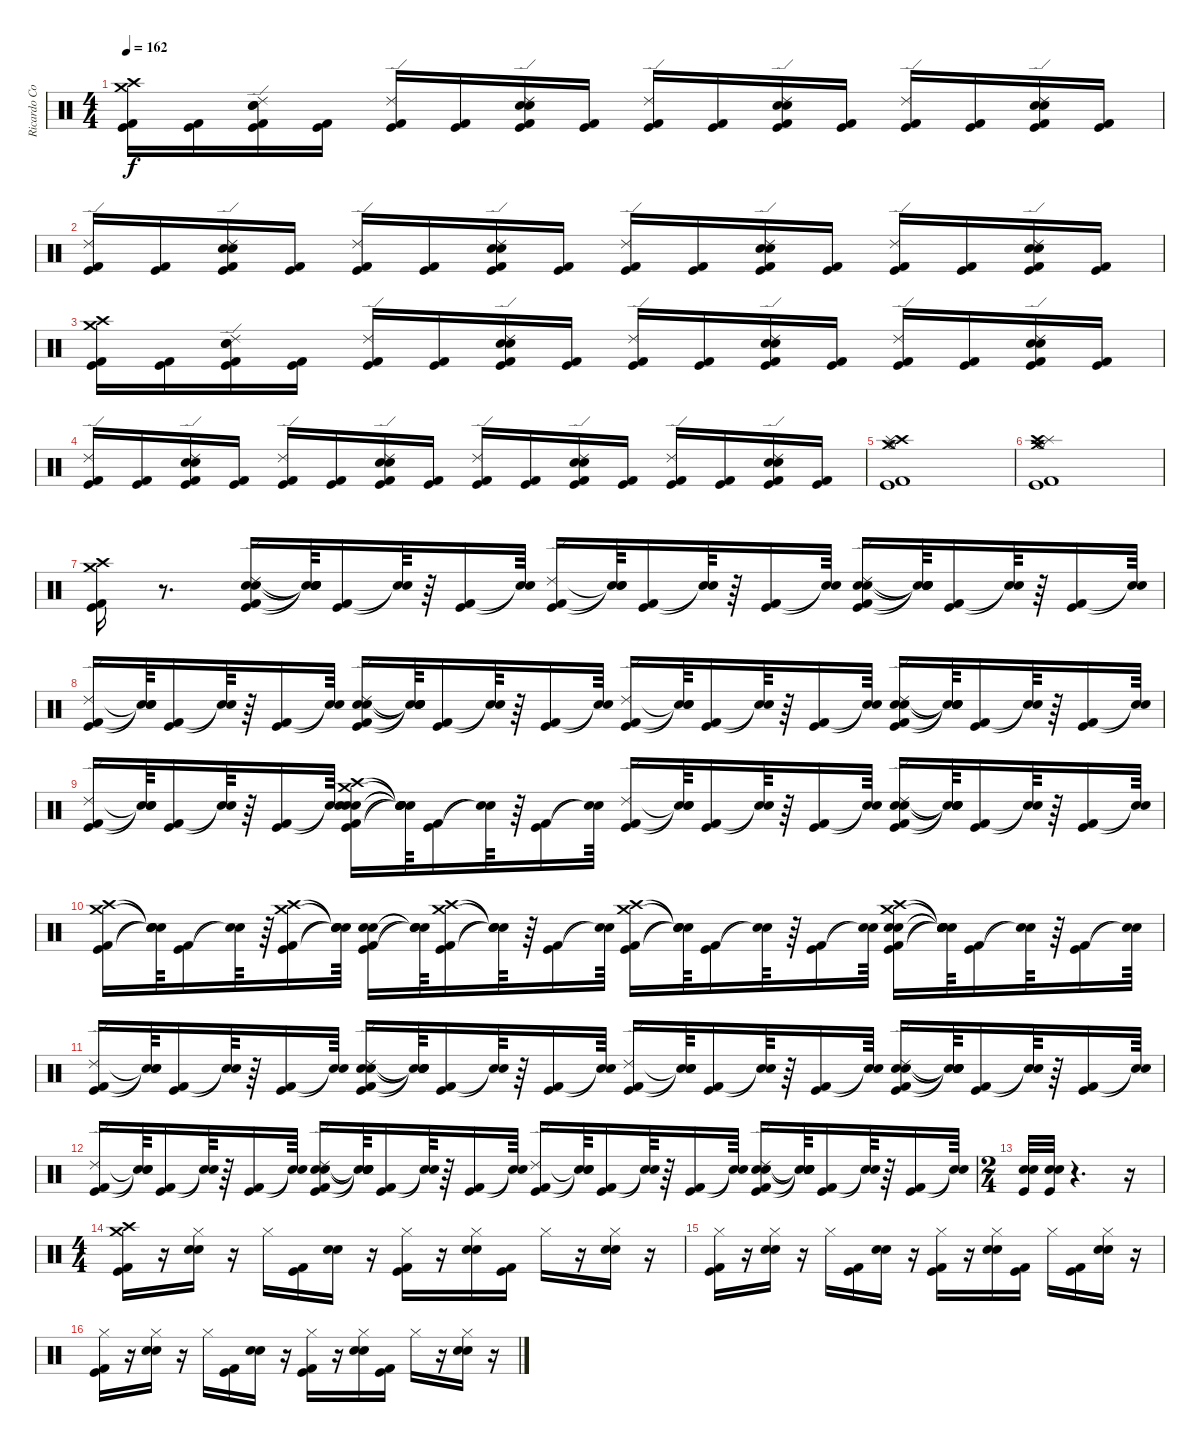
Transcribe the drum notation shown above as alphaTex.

\track ("Ricardo Confessori" "Ricardo Co") {instrument percussion}
\staff {score}
\articulation defaults
\ts (4 4)
\tempo 162
\clef neutral
\ks c
("Crash high (hit)" "Crash medium (hit)" "Kick (hit) 2" "Kick (hit)").16{dy f} ("Kick (hit) 2" "Kick (hit)").16 ("Ride (edge) 2" "Electric Snare (hit)" "Snare (hit) 2" "Kick (hit) 2" "Kick (hit)").16 ("Kick (hit) 2" "Kick (hit)").16 ("Ride (edge) 2" "Kick (hit) 2" "Kick (hit)").16 ("Kick (hit) 2" "Kick (hit)").16 ("Ride (edge) 2" "Electric Snare (hit)" "Snare (hit) 2" "Kick (hit) 2" "Kick (hit)").16 ("Kick (hit) 2" "Kick (hit)").16 ("Ride (edge) 2" "Kick (hit) 2" "Kick (hit)").16 ("Kick (hit) 2" "Kick (hit)").16 ("Ride (edge) 2" "Electric Snare (hit)" "Snare (hit) 2" "Kick (hit) 2" "Kick (hit)").16 ("Kick (hit) 2" "Kick (hit)").16 ("Ride (edge) 2" "Kick (hit) 2" "Kick (hit)").16 ("Kick (hit) 2" "Kick (hit)").16 ("Ride (edge) 2" "Electric Snare (hit)" "Snare (hit) 2" "Kick (hit) 2" "Kick (hit)").16 ("Kick (hit) 2" "Kick (hit)").16 |
("Ride (edge) 2" "Kick (hit) 2" "Kick (hit)").16 ("Kick (hit) 2" "Kick (hit)").16 ("Ride (edge) 2" "Electric Snare (hit)" "Snare (hit) 2" "Kick (hit) 2" "Kick (hit)").16 ("Kick (hit) 2" "Kick (hit)").16 ("Ride (edge) 2" "Kick (hit) 2" "Kick (hit)").16 ("Kick (hit) 2" "Kick (hit)").16 ("Ride (edge) 2" "Electric Snare (hit)" "Snare (hit) 2" "Kick (hit) 2" "Kick (hit)").16 ("Kick (hit) 2" "Kick (hit)").16 ("Ride (edge) 2" "Kick (hit) 2" "Kick (hit)").16 ("Kick (hit) 2" "Kick (hit)").16 ("Ride (edge) 2" "Electric Snare (hit)" "Snare (hit) 2" "Kick (hit) 2" "Kick (hit)").16 ("Kick (hit) 2" "Kick (hit)").16 ("Ride (edge) 2" "Kick (hit) 2" "Kick (hit)").16 ("Kick (hit) 2" "Kick (hit)").16 ("Ride (edge) 2" "Electric Snare (hit)" "Snare (hit) 2" "Kick (hit) 2" "Kick (hit)").16 ("Kick (hit) 2" "Kick (hit)").16 |
("Crash high (hit)" "Crash medium (hit)" "Kick (hit) 2" "Kick (hit)").16 ("Kick (hit) 2" "Kick (hit)").16 ("Ride (edge) 2" "Electric Snare (hit)" "Snare (hit) 2" "Kick (hit) 2" "Kick (hit)").16 ("Kick (hit) 2" "Kick (hit)").16 ("Ride (edge) 2" "Kick (hit) 2" "Kick (hit)").16 ("Kick (hit) 2" "Kick (hit)").16 ("Ride (edge) 2" "Electric Snare (hit)" "Snare (hit) 2" "Kick (hit) 2" "Kick (hit)").16 ("Kick (hit) 2" "Kick (hit)").16 ("Ride (edge) 2" "Kick (hit) 2" "Kick (hit)").16 ("Kick (hit) 2" "Kick (hit)").16 ("Ride (edge) 2" "Electric Snare (hit)" "Snare (hit) 2" "Kick (hit) 2" "Kick (hit)").16 ("Kick (hit) 2" "Kick (hit)").16 ("Ride (edge) 2" "Kick (hit) 2" "Kick (hit)").16 ("Kick (hit) 2" "Kick (hit)").16 ("Ride (edge) 2" "Electric Snare (hit)" "Snare (hit) 2" "Kick (hit) 2" "Kick (hit)").16 ("Kick (hit) 2" "Kick (hit)").16 |
("Ride (edge) 2" "Kick (hit) 2" "Kick (hit)").16 ("Kick (hit) 2" "Kick (hit)").16 ("Ride (edge) 2" "Electric Snare (hit)" "Snare (hit) 2" "Kick (hit) 2" "Kick (hit)").16 ("Kick (hit) 2" "Kick (hit)").16 ("Ride (edge) 2" "Kick (hit) 2" "Kick (hit)").16 ("Kick (hit) 2" "Kick (hit)").16 ("Ride (edge) 2" "Electric Snare (hit)" "Snare (hit) 2" "Kick (hit) 2" "Kick (hit)").16 ("Kick (hit) 2" "Kick (hit)").16 ("Ride (edge) 2" "Kick (hit) 2" "Kick (hit)").16 ("Kick (hit) 2" "Kick (hit)").16 ("Ride (edge) 2" "Electric Snare (hit)" "Snare (hit) 2" "Kick (hit) 2" "Kick (hit)").16 ("Kick (hit) 2" "Kick (hit)").16 ("Ride (edge) 2" "Kick (hit) 2" "Kick (hit)").16 ("Kick (hit) 2" "Kick (hit)").16 ("Ride (edge) 2" "Electric Snare (hit)" "Snare (hit) 2" "Kick (hit) 2" "Kick (hit)").16 ("Kick (hit) 2" "Kick (hit)").16 |
("Hi-Hat (open)" "Crash high (hit)" "Splash (hit)" "Crash medium (hit)" "Kick (hit) 2" "Kick (hit)").1 |
("Kick (hit)" "Kick (hit) 2" "Crash medium (hit)" "Splash (hit)" "Hi-Hat (open)" "Crash high (hit)").1 |
("Crash high (hit)" "Crash medium (hit)" "Kick (hit) 2" "Kick (hit)").16 r.8{d} ("Ride (edge) 2" "Electric Snare (hit)" "Snare (hit) 2" "Kick (hit) 2" "Kick (hit)").16 ("Snare (hit)"{t} "Snare (hit)"{t} "Snare (hit)"{t} "Snare (hit)"{t} "Snare (hit)"{t}).64 ("Kick (hit) 2" "Kick (hit)").16 ("Snare (hit)"{t} "Snare (hit)"{t}).64 r.64 ("Kick (hit) 2" "Kick (hit)").16 ("Snare (hit)"{t} "Snare (hit)"{t}).64 ("Ride (edge) 2" "Kick (hit) 2" "Kick (hit)").16 ("Snare (hit)"{t} "Snare (hit)"{t} "Snare (hit)"{t}).64 ("Kick (hit) 2" "Kick (hit)").16 ("Snare (hit)"{t} "Snare (hit)"{t}).64 r.64 ("Kick (hit) 2" "Kick (hit)").16 ("Snare (hit)"{t} "Snare (hit)"{t}).64 ("Ride (edge) 2" "Electric Snare (hit)" "Snare (hit) 2" "Kick (hit) 2" "Kick (hit)").16 ("Snare (hit)"{t} "Snare (hit)"{t} "Snare (hit)"{t} "Snare (hit)"{t} "Snare (hit)"{t}).64 ("Kick (hit) 2" "Kick (hit)").16 ("Snare (hit)"{t} "Snare (hit)"{t}).64 r.64 ("Kick (hit) 2" "Kick (hit)").16 ("Snare (hit)"{t} "Snare (hit)"{t}).64 |
("Ride (edge) 2" "Kick (hit) 2" "Kick (hit)").16 ("Snare (hit)"{t} "Snare (hit)"{t} "Snare (hit)"{t}).64 ("Kick (hit) 2" "Kick (hit)").16 ("Snare (hit)"{t} "Snare (hit)"{t}).64 r.64 ("Kick (hit) 2" "Kick (hit)").16 ("Snare (hit)"{t} "Snare (hit)"{t}).64 ("Ride (edge) 2" "Electric Snare (hit)" "Snare (hit) 2" "Kick (hit) 2" "Kick (hit)").16 ("Snare (hit)"{t} "Snare (hit)"{t} "Snare (hit)"{t} "Snare (hit)"{t} "Snare (hit)"{t}).64 ("Kick (hit) 2" "Kick (hit)").16 ("Snare (hit)"{t} "Snare (hit)"{t}).64 r.64 ("Kick (hit) 2" "Kick (hit)").16 ("Snare (hit)"{t} "Snare (hit)"{t}).64 ("Ride (edge) 2" "Kick (hit) 2" "Kick (hit)").16 ("Snare (hit)"{t} "Snare (hit)"{t} "Snare (hit)"{t}).64 ("Kick (hit) 2" "Kick (hit)").16 ("Snare (hit)"{t} "Snare (hit)"{t}).64 r.64 ("Kick (hit) 2" "Kick (hit)").16 ("Snare (hit)"{t} "Snare (hit)"{t}).64 ("Ride (edge) 2" "Electric Snare (hit)" "Snare (hit) 2" "Kick (hit) 2" "Kick (hit)").16 ("Snare (hit)"{t} "Snare (hit)"{t} "Snare (hit)"{t} "Snare (hit)"{t} "Snare (hit)"{t}).64 ("Kick (hit) 2" "Kick (hit)").16 ("Snare (hit)"{t} "Snare (hit)"{t}).64 r.64 ("Kick (hit) 2" "Kick (hit)").16 ("Snare (hit)"{t} "Snare (hit)"{t}).64 |
("Ride (edge) 2" "Kick (hit) 2" "Kick (hit)").16 ("Snare (hit)"{t} "Snare (hit)"{t} "Snare (hit)"{t}).64 ("Kick (hit) 2" "Kick (hit)").16 ("Snare (hit)"{t} "Snare (hit)"{t}).64 r.64 ("Kick (hit) 2" "Kick (hit)").16 ("Snare (hit)"{t} "Snare (hit)"{t}).64 ("Crash high (hit)" "Crash medium (hit)" "Electric Snare (hit)" "Snare (hit) 2" "Kick (hit) 2" "Kick (hit)").16 ("Snare (hit)"{t} "Snare (hit)"{t} "Snare (hit)"{t} "Snare (hit)"{t} "Snare (hit)"{t} "Snare (hit)"{t}).64 ("Kick (hit) 2" "Kick (hit)").16 ("Snare (hit)"{t} "Snare (hit)"{t}).64 r.64 ("Kick (hit) 2" "Kick (hit)").16 ("Snare (hit)"{t} "Snare (hit)"{t}).64 ("Ride (edge) 2" "Kick (hit) 2" "Kick (hit)").16 ("Snare (hit)"{t} "Snare (hit)"{t} "Snare (hit)"{t}).64 ("Kick (hit) 2" "Kick (hit)").16 ("Snare (hit)"{t} "Snare (hit)"{t}).64 r.64 ("Kick (hit) 2" "Kick (hit)").16 ("Snare (hit)"{t} "Snare (hit)"{t}).64 ("Ride (edge) 2" "Electric Snare (hit)" "Snare (hit) 2" "Kick (hit) 2" "Kick (hit)").16 ("Snare (hit)"{t} "Snare (hit)"{t} "Snare (hit)"{t} "Snare (hit)"{t} "Snare (hit)"{t}).64 ("Kick (hit) 2" "Kick (hit)").16 ("Snare (hit)"{t} "Snare (hit)"{t}).64 r.64 ("Kick (hit) 2" "Kick (hit)").16 ("Snare (hit)"{t} "Snare (hit)"{t}).64 |
("Crash high (hit)" "Crash medium (hit)" "Kick (hit) 2" "Kick (hit)").16 ("Snare (hit)"{t} "Snare (hit)"{t} "Snare (hit)"{t} "Snare (hit)"{t}).64 ("Kick (hit) 2" "Kick (hit)").16 ("Snare (hit)"{t} "Snare (hit)"{t}).64 r.64 ("Crash medium (hit)" "Crash high (hit)" "Kick (hit) 2" "Kick (hit)").16 ("Snare (hit)"{t} "Snare (hit)"{t} "Snare (hit)"{t} "Snare (hit)"{t}).64 ("Electric Snare (hit)" "Snare (hit) 2" "Kick (hit) 2" "Kick (hit)").16 ("Snare (hit)"{t} "Snare (hit)"{t} "Snare (hit)"{t} "Snare (hit)"{t}).64 ("Crash medium (hit)" "Crash high (hit)" "Kick (hit) 2" "Kick (hit)").16 ("Snare (hit)"{t} "Snare (hit)"{t} "Snare (hit)"{t} "Snare (hit)"{t}).64 r.64 ("Kick (hit) 2" "Kick (hit)").16 ("Snare (hit)"{t} "Snare (hit)"{t}).64 ("Crash high (hit)" "Crash medium (hit)" "Kick (hit) 2" "Kick (hit)").16 ("Snare (hit)"{t} "Snare (hit)"{t} "Snare (hit)"{t} "Snare (hit)"{t}).64 ("Kick (hit) 2" "Kick (hit)").16 ("Snare (hit)"{t} "Snare (hit)"{t}).64 r.64 ("Kick (hit) 2" "Kick (hit)").16 ("Snare (hit)"{t} "Snare (hit)"{t}).64 ("Crash high (hit)" "Crash medium (hit)" "Electric Snare (hit)" "Snare (hit) 2" "Kick (hit) 2" "Kick (hit)").16 ("Snare (hit)"{t} "Snare (hit)"{t} "Snare (hit)"{t} "Snare (hit)"{t} "Snare (hit)"{t} "Snare (hit)"{t}).64 ("Kick (hit) 2" "Kick (hit)").16 ("Snare (hit)"{t} "Snare (hit)"{t}).64 r.64 ("Kick (hit) 2" "Kick (hit)").16 ("Snare (hit)"{t} "Snare (hit)"{t}).64 |
("Ride (edge) 2" "Kick (hit) 2" "Kick (hit)").16 ("Snare (hit)"{t} "Snare (hit)"{t} "Snare (hit)"{t}).64 ("Kick (hit) 2" "Kick (hit)").16 ("Snare (hit)"{t} "Snare (hit)"{t}).64 r.64 ("Kick (hit) 2" "Kick (hit)").16 ("Snare (hit)"{t} "Snare (hit)"{t}).64 ("Ride (edge) 2" "Electric Snare (hit)" "Snare (hit) 2" "Kick (hit) 2" "Kick (hit)").16 ("Snare (hit)"{t} "Snare (hit)"{t} "Snare (hit)"{t} "Snare (hit)"{t} "Snare (hit)"{t}).64 ("Kick (hit) 2" "Kick (hit)").16 ("Snare (hit)"{t} "Snare (hit)"{t}).64 r.64 ("Kick (hit) 2" "Kick (hit)").16 ("Snare (hit)"{t} "Snare (hit)"{t}).64 ("Ride (edge) 2" "Kick (hit) 2" "Kick (hit)").16 ("Snare (hit)"{t} "Snare (hit)"{t} "Snare (hit)"{t}).64 ("Kick (hit) 2" "Kick (hit)").16 ("Snare (hit)"{t} "Snare (hit)"{t}).64 r.64 ("Kick (hit) 2" "Kick (hit)").16 ("Snare (hit)"{t} "Snare (hit)"{t}).64 ("Ride (edge) 2" "Electric Snare (hit)" "Snare (hit) 2" "Kick (hit) 2" "Kick (hit)").16 ("Snare (hit)"{t} "Snare (hit)"{t} "Snare (hit)"{t} "Snare (hit)"{t} "Snare (hit)"{t}).64 ("Kick (hit) 2" "Kick (hit)").16 ("Snare (hit)"{t} "Snare (hit)"{t}).64 r.64 ("Kick (hit) 2" "Kick (hit)").16 ("Snare (hit)"{t} "Snare (hit)"{t}).64 |
("Ride (edge) 2" "Kick (hit) 2" "Kick (hit)").16 ("Snare (hit)"{t} "Snare (hit)"{t} "Snare (hit)"{t}).64 ("Kick (hit) 2" "Kick (hit)").16 ("Snare (hit)"{t} "Snare (hit)"{t}).64 r.64 ("Kick (hit) 2" "Kick (hit)").16 ("Snare (hit)"{t} "Snare (hit)"{t}).64 ("Ride (edge) 2" "Electric Snare (hit)" "Snare (hit) 2" "Kick (hit) 2" "Kick (hit)").16 ("Snare (hit)"{t} "Snare (hit)"{t} "Snare (hit)"{t} "Snare (hit)"{t} "Snare (hit)"{t}).64 ("Kick (hit) 2" "Kick (hit)").16 ("Snare (hit)"{t} "Snare (hit)"{t}).64 r.64 ("Kick (hit) 2" "Kick (hit)").16 ("Snare (hit)"{t} "Snare (hit)"{t}).64 ("Ride (edge) 2" "Kick (hit) 2" "Kick (hit)").16 ("Snare (hit)"{t} "Snare (hit)"{t} "Snare (hit)"{t}).64 ("Kick (hit) 2" "Kick (hit)").16 ("Snare (hit)"{t} "Snare (hit)"{t}).64 r.64 ("Kick (hit) 2" "Kick (hit)").16 ("Snare (hit)"{t} "Snare (hit)"{t}).64 ("Ride (edge) 2" "Electric Snare (hit)" "Snare (hit) 2" "Kick (hit) 2" "Kick (hit)").16 ("Snare (hit)"{t} "Snare (hit)"{t} "Snare (hit)"{t} "Snare (hit)"{t} "Snare (hit)"{t}).64 ("Kick (hit) 2" "Kick (hit)").16 ("Snare (hit)"{t} "Snare (hit)"{t}).64 r.64 ("Kick (hit) 2" "Kick (hit)").16 ("Snare (hit)"{t} "Snare (hit)"{t}).64 |
\ts (2 4)
("Kick (hit)" "Electric Snare (hit)" "Snare (hit) 2").32 ("Kick (hit)" "Electric Snare (hit)" "Snare (hit) 2").32 r.4{d} r.16 |
\ts (4 4)
("Crash high (hit)" "Crash medium (hit)" "Kick (hit) 2" "Kick (hit)").16 r.16 ("Hi-Hat (closed)" "Electric Snare (hit)" "Snare (hit) 2").16 r.16 "Hi-Hat (closed)".16 ("Kick (hit) 2" "Kick (hit)").16 ("Electric Snare (hit)" "Snare (hit) 2").16 r.16 ("Hi-Hat (closed)" "Kick (hit) 2" "Kick (hit)").16 r.16 ("Hi-Hat (closed)" "Electric Snare (hit)" "Snare (hit) 2").16 ("Kick (hit) 2" "Kick (hit)").16 "Hi-Hat (closed)".16 r.16 ("Hi-Hat (closed)" "Electric Snare (hit)" "Snare (hit) 2").16 r.16 |
("Hi-Hat (closed)" "Kick (hit) 2" "Kick (hit)").16 r.16 ("Hi-Hat (closed)" "Electric Snare (hit)" "Snare (hit) 2").16 r.16 "Hi-Hat (closed)".16 ("Kick (hit) 2" "Kick (hit)").16 ("Electric Snare (hit)" "Snare (hit) 2").16 r.16 ("Hi-Hat (closed)" "Kick (hit) 2" "Kick (hit)").16 r.16 ("Hi-Hat (closed)" "Electric Snare (hit)" "Snare (hit) 2").16 ("Kick (hit) 2" "Kick (hit)").16 "Hi-Hat (closed)".16 ("Kick (hit) 2" "Kick (hit)").16 ("Hi-Hat (closed)" "Electric Snare (hit)" "Snare (hit) 2").16 r.16 |
("Hi-Hat (closed)" "Kick (hit) 2" "Kick (hit)").16 r.16 ("Hi-Hat (closed)" "Electric Snare (hit)" "Snare (hit) 2").16 r.16 "Hi-Hat (closed)".16 ("Kick (hit) 2" "Kick (hit)").16 ("Electric Snare (hit)" "Snare (hit) 2").16 r.16 ("Hi-Hat (closed)" "Kick (hit) 2" "Kick (hit)").16 r.16 ("Hi-Hat (closed)" "Electric Snare (hit)" "Snare (hit) 2").16 ("Kick (hit) 2" "Kick (hit)").16 "Hi-Hat (closed)".16 r.16 ("Hi-Hat (closed)" "Electric Snare (hit)" "Snare (hit) 2").16 r.16
